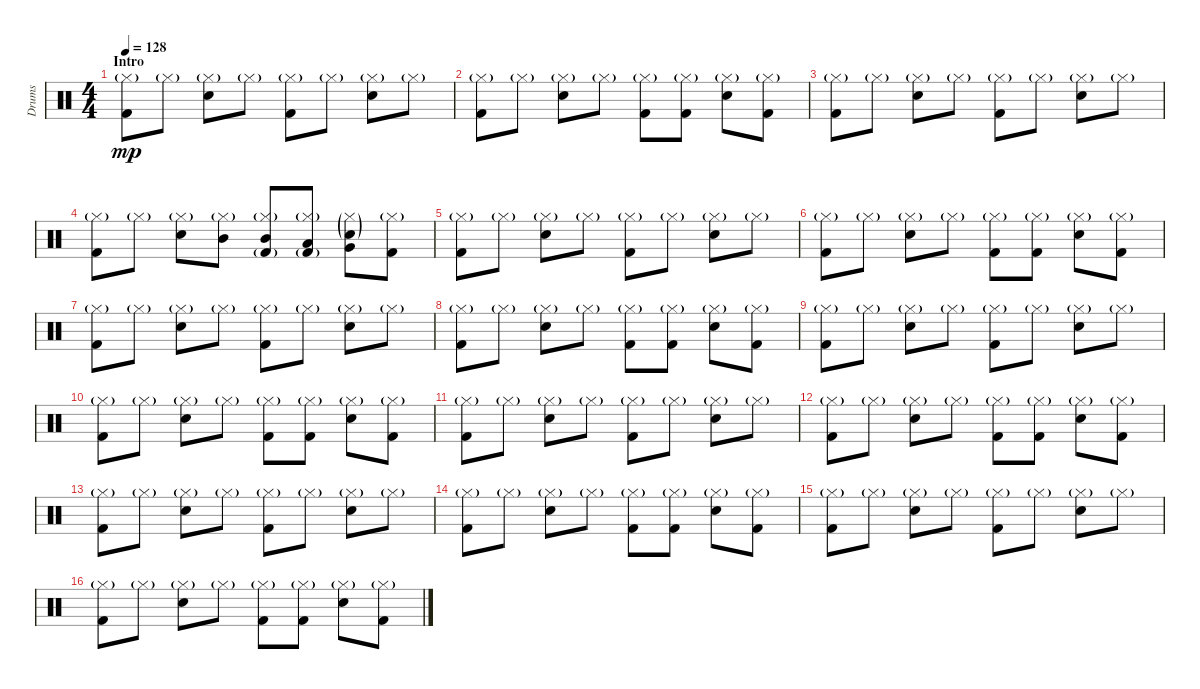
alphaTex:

\track ("Drums" "Drums") {instrument percussion}
\staff {score}
\articulation defaults
\ts (4 4)
\section ("" "Intro")
\tempo 128
\clef neutral
\ks c
("Kick (hit) 2" "Hi-Hat (closed)"{g}).8{dy mp} "Hi-Hat (closed)"{g}.8 ("Snare (hit) 2" "Hi-Hat (closed)"{g}).8 "Hi-Hat (closed)"{g}.8 ("Kick (hit) 2" "Hi-Hat (closed)"{g}).8 "Hi-Hat (closed)"{g}.8 ("Snare (hit) 2" "Hi-Hat (closed)"{g}).8 "Hi-Hat (closed)"{g}.8 |
("Kick (hit) 2" "Hi-Hat (closed)"{g}).8 "Hi-Hat (closed)"{g}.8 ("Snare (hit) 2" "Hi-Hat (closed)"{g}).8 "Hi-Hat (closed)"{g}.8 ("Kick (hit) 2" "Hi-Hat (closed)"{g}).8 ("Kick (hit) 2" "Hi-Hat (closed)"{g}).8 ("Snare (hit) 2" "Hi-Hat (closed)"{g}).8 ("Kick (hit) 2" "Hi-Hat (closed)"{g}).8 |
("Kick (hit) 2" "Hi-Hat (closed)"{g}).8 "Hi-Hat (closed)"{g}.8 ("Snare (hit) 2" "Hi-Hat (closed)"{g}).8 "Hi-Hat (closed)"{g}.8 ("Kick (hit) 2" "Hi-Hat (closed)"{g}).8 "Hi-Hat (closed)"{g}.8 ("Snare (hit) 2" "Hi-Hat (closed)"{g}).8 "Hi-Hat (closed)"{g}.8 |
("Kick (hit) 2" "Hi-Hat (closed)"{g}).8 "Hi-Hat (closed)"{g}.8 ("Snare (hit) 2" "Hi-Hat (closed)"{g}).8 ("Mid Tom (hit)" "Hi-Hat (closed)"{g}).8 ("Kick (hit) 2"{g} "Mid Tom (hit)" "Hi-Hat (closed)"{g}).8 ("Kick (hit) 2"{g} "Low Tom (hit)" "Hi-Hat (closed)"{g}).8 ("Snare (hit) 2"{g} "Very Low Tom (hit)" "Hi-Hat (closed)"{g}).8 ("Kick (hit) 2" "Hi-Hat (closed)"{g}).8 |
("Kick (hit) 2" "Hi-Hat (closed)"{g}).8 "Hi-Hat (closed)"{g}.8 ("Snare (hit) 2" "Hi-Hat (closed)"{g}).8 "Hi-Hat (closed)"{g}.8 ("Kick (hit) 2" "Hi-Hat (closed)"{g}).8 "Hi-Hat (closed)"{g}.8 ("Snare (hit) 2" "Hi-Hat (closed)"{g}).8 "Hi-Hat (closed)"{g}.8 |
("Kick (hit) 2" "Hi-Hat (closed)"{g}).8 "Hi-Hat (closed)"{g}.8 ("Snare (hit) 2" "Hi-Hat (closed)"{g}).8 "Hi-Hat (closed)"{g}.8 ("Kick (hit) 2" "Hi-Hat (closed)"{g}).8 ("Kick (hit) 2" "Hi-Hat (closed)"{g}).8 ("Snare (hit) 2" "Hi-Hat (closed)"{g}).8 ("Kick (hit) 2" "Hi-Hat (closed)"{g}).8 |
("Kick (hit) 2" "Hi-Hat (closed)"{g}).8 "Hi-Hat (closed)"{g}.8 ("Snare (hit) 2" "Hi-Hat (closed)"{g}).8 "Hi-Hat (closed)"{g}.8 ("Kick (hit) 2" "Hi-Hat (closed)"{g}).8 "Hi-Hat (closed)"{g}.8 ("Snare (hit) 2" "Hi-Hat (closed)"{g}).8 "Hi-Hat (closed)"{g}.8 |
("Kick (hit) 2" "Hi-Hat (closed)"{g}).8 "Hi-Hat (closed)"{g}.8 ("Snare (hit) 2" "Hi-Hat (closed)"{g}).8 "Hi-Hat (closed)"{g}.8 ("Kick (hit) 2" "Hi-Hat (closed)"{g}).8 ("Kick (hit) 2" "Hi-Hat (closed)"{g}).8 ("Snare (hit) 2" "Hi-Hat (closed)"{g}).8 ("Kick (hit) 2" "Hi-Hat (closed)"{g}).8 |
("Kick (hit) 2" "Hi-Hat (closed)"{g}).8 "Hi-Hat (closed)"{g}.8 ("Snare (hit) 2" "Hi-Hat (closed)"{g}).8 "Hi-Hat (closed)"{g}.8 ("Kick (hit) 2" "Hi-Hat (closed)"{g}).8 "Hi-Hat (closed)"{g}.8 ("Snare (hit) 2" "Hi-Hat (closed)"{g}).8 "Hi-Hat (closed)"{g}.8 |
("Kick (hit) 2" "Hi-Hat (closed)"{g}).8 "Hi-Hat (closed)"{g}.8 ("Snare (hit) 2" "Hi-Hat (closed)"{g}).8 "Hi-Hat (closed)"{g}.8 ("Kick (hit) 2" "Hi-Hat (closed)"{g}).8 ("Kick (hit) 2" "Hi-Hat (closed)"{g}).8 ("Snare (hit) 2" "Hi-Hat (closed)"{g}).8 ("Kick (hit) 2" "Hi-Hat (closed)"{g}).8 |
("Kick (hit) 2" "Hi-Hat (closed)"{g}).8 "Hi-Hat (closed)"{g}.8 ("Snare (hit) 2" "Hi-Hat (closed)"{g}).8 "Hi-Hat (closed)"{g}.8 ("Kick (hit) 2" "Hi-Hat (closed)"{g}).8 "Hi-Hat (closed)"{g}.8 ("Snare (hit) 2" "Hi-Hat (closed)"{g}).8 "Hi-Hat (closed)"{g}.8 |
("Kick (hit) 2" "Hi-Hat (closed)"{g}).8 "Hi-Hat (closed)"{g}.8 ("Snare (hit) 2" "Hi-Hat (closed)"{g}).8 "Hi-Hat (closed)"{g}.8 ("Kick (hit) 2" "Hi-Hat (closed)"{g}).8 ("Kick (hit) 2" "Hi-Hat (closed)"{g}).8 ("Snare (hit) 2" "Hi-Hat (closed)"{g}).8 ("Kick (hit) 2" "Hi-Hat (closed)"{g}).8 |
("Kick (hit) 2" "Hi-Hat (closed)"{g}).8 "Hi-Hat (closed)"{g}.8 ("Snare (hit) 2" "Hi-Hat (closed)"{g}).8 "Hi-Hat (closed)"{g}.8 ("Kick (hit) 2" "Hi-Hat (closed)"{g}).8 "Hi-Hat (closed)"{g}.8 ("Snare (hit) 2" "Hi-Hat (closed)"{g}).8 "Hi-Hat (closed)"{g}.8 |
("Kick (hit) 2" "Hi-Hat (closed)"{g}).8 "Hi-Hat (closed)"{g}.8 ("Snare (hit) 2" "Hi-Hat (closed)"{g}).8 "Hi-Hat (closed)"{g}.8 ("Kick (hit) 2" "Hi-Hat (closed)"{g}).8 ("Kick (hit) 2" "Hi-Hat (closed)"{g}).8 ("Snare (hit) 2" "Hi-Hat (closed)"{g}).8 ("Kick (hit) 2" "Hi-Hat (closed)"{g}).8 |
("Kick (hit) 2" "Hi-Hat (closed)"{g}).8 "Hi-Hat (closed)"{g}.8 ("Snare (hit) 2" "Hi-Hat (closed)"{g}).8 "Hi-Hat (closed)"{g}.8 ("Kick (hit) 2" "Hi-Hat (closed)"{g}).8 "Hi-Hat (closed)"{g}.8 ("Snare (hit) 2" "Hi-Hat (closed)"{g}).8 "Hi-Hat (closed)"{g}.8 |
("Kick (hit) 2" "Hi-Hat (closed)"{g}).8 "Hi-Hat (closed)"{g}.8 ("Snare (hit) 2" "Hi-Hat (closed)"{g}).8 "Hi-Hat (closed)"{g}.8 ("Kick (hit) 2" "Hi-Hat (closed)"{g}).8 ("Kick (hit) 2" "Hi-Hat (closed)"{g}).8 ("Snare (hit) 2" "Hi-Hat (closed)"{g}).8 ("Kick (hit) 2" "Hi-Hat (closed)"{g}).8
